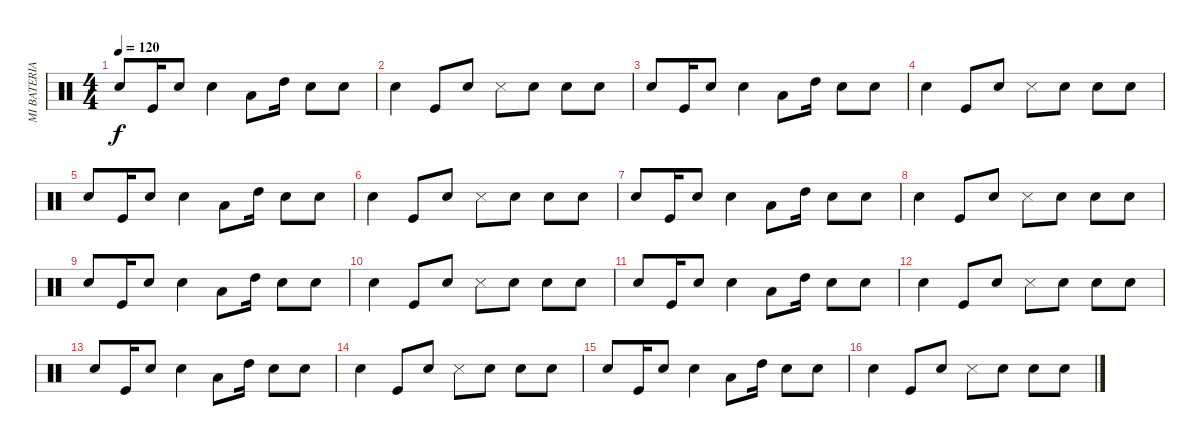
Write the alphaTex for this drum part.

\track ("MI BATERIA" "MI BATERIA") {instrument percussion}
\staff {score}
\articulation defaults
\ts (4 4)
\tempo 120
\clef neutral
\ks c "Snare (hit) 2".8{dy f} "Kick (hit)".16 "Electric Snare (hit)".8 "Snare (hit) 2".4 "Low Floor Tom (hit)".8 "High Tom (hit)".16 "Snare (hit) 2".8 "Electric Snare (hit)".8
|
"Snare (hit) 2".4 "Kick (hit)".8 "Electric Snare (hit)".8 "Snare (side stick) 3".8 "Electric Snare (hit)".8 "Snare (hit) 2".8 "Electric Snare (hit)".8 |
"Snare (hit) 2".8 "Kick (hit)".16 "Electric Snare (hit)".8 "Snare (hit) 2".4 "Low Floor Tom (hit)".8 "High Tom (hit)".16 "Snare (hit) 2".8 "Electric Snare (hit)".8 |
"Snare (hit) 2".4 "Kick (hit)".8 "Electric Snare (hit)".8 "Snare (side stick) 3".8 "Electric Snare (hit)".8 "Snare (hit) 2".8 "Electric Snare (hit)".8 |
"Snare (hit) 2".8 "Kick (hit)".16 "Electric Snare (hit)".8 "Snare (hit) 2".4 "Low Floor Tom (hit)".8 "High Tom (hit)".16 "Snare (hit) 2".8 "Electric Snare (hit)".8 |
"Snare (hit) 2".4 "Kick (hit)".8 "Electric Snare (hit)".8 "Snare (side stick) 3".8 "Electric Snare (hit)".8 "Snare (hit) 2".8 "Electric Snare (hit)".8 |
"Snare (hit) 2".8 "Kick (hit)".16 "Electric Snare (hit)".8 "Snare (hit) 2".4 "Low Floor Tom (hit)".8 "High Tom (hit)".16 "Snare (hit) 2".8 "Electric Snare (hit)".8 |
"Snare (hit) 2".4 "Kick (hit)".8 "Electric Snare (hit)".8 "Snare (side stick) 3".8 "Electric Snare (hit)".8 "Snare (hit) 2".8 "Electric Snare (hit)".8 |
"Snare (hit) 2".8 "Kick (hit)".16 "Electric Snare (hit)".8 "Snare (hit) 2".4 "Low Floor Tom (hit)".8 "High Tom (hit)".16 "Snare (hit) 2".8 "Electric Snare (hit)".8 |
"Snare (hit) 2".4 "Kick (hit)".8 "Electric Snare (hit)".8 "Snare (side stick) 3".8 "Electric Snare (hit)".8 "Snare (hit) 2".8 "Electric Snare (hit)".8 |
"Snare (hit) 2".8 "Kick (hit)".16 "Electric Snare (hit)".8 "Snare (hit) 2".4 "Low Floor Tom (hit)".8 "High Tom (hit)".16 "Snare (hit) 2".8 "Electric Snare (hit)".8 |
"Snare (hit) 2".4 "Kick (hit)".8 "Electric Snare (hit)".8 "Snare (side stick) 3".8 "Electric Snare (hit)".8 "Snare (hit) 2".8 "Electric Snare (hit)".8 |
"Snare (hit) 2".8 "Kick (hit)".16 "Electric Snare (hit)".8 "Snare (hit) 2".4 "Low Floor Tom (hit)".8 "High Tom (hit)".16 "Snare (hit) 2".8 "Electric Snare (hit)".8 |
"Snare (hit) 2".4 "Kick (hit)".8 "Electric Snare (hit)".8 "Snare (side stick) 3".8 "Electric Snare (hit)".8 "Snare (hit) 2".8 "Electric Snare (hit)".8 |
"Snare (hit) 2".8 "Kick (hit)".16 "Electric Snare (hit)".8 "Snare (hit) 2".4 "Low Floor Tom (hit)".8 "High Tom (hit)".16 "Snare (hit) 2".8 "Electric Snare (hit)".8 |
"Snare (hit) 2".4 "Kick (hit)".8 "Electric Snare (hit)".8 "Snare (side stick) 3".8 "Electric Snare (hit)".8 "Snare (hit) 2".8 "Electric Snare (hit)".8
